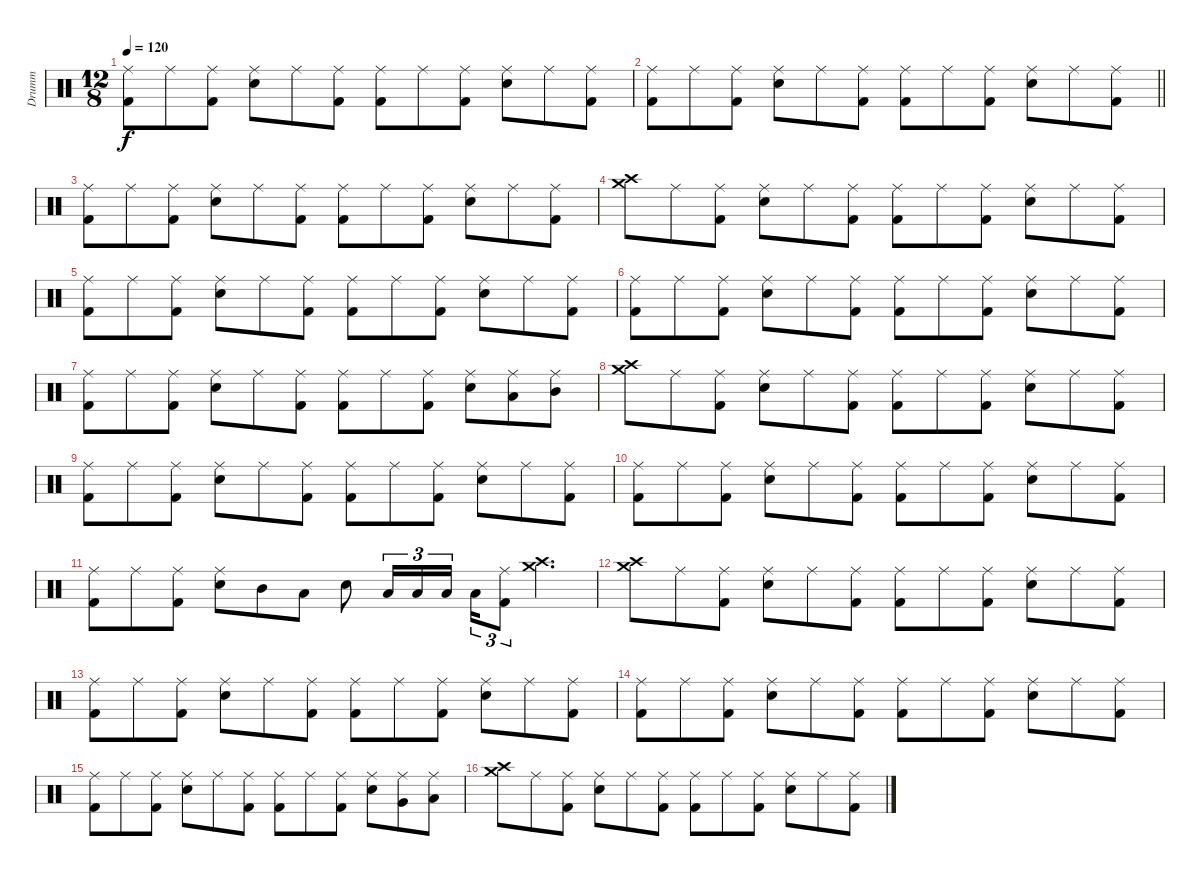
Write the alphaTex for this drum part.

\track ("Drumm" "Drumm") {instrument percussion}
\staff {score}
\articulation defaults
\ts (12 8)
\tempo 120
\clef neutral
\ks c
("Kick (hit) 2" "Ride (middle)").8{dy f} "Ride (middle)".8 ("Kick (hit) 2" "Ride (middle)").8 ("Electric Snare (hit)" "Ride (middle)").8 "Ride (middle)".8 ("Kick (hit) 2" "Ride (middle)").8 ("Kick (hit) 2" "Ride (middle)").8 "Ride (middle)".8 ("Kick (hit) 2" "Ride (middle)").8 ("Electric Snare (hit)" "Ride (middle)").8 "Ride (middle)".8 ("Kick (hit) 2" "Ride (middle)").8 |
\barLineRight lightlight
("Kick (hit) 2" "Ride (middle)").8 "Ride (middle)".8 ("Kick (hit) 2" "Ride (middle)").8 ("Electric Snare (hit)" "Ride (middle)").8 "Ride (middle)".8 ("Kick (hit) 2" "Ride (middle)").8 ("Kick (hit) 2" "Ride (middle)").8 "Ride (middle)".8 ("Kick (hit) 2" "Ride (middle)").8 ("Electric Snare (hit)" "Ride (middle)").8 "Ride (middle)".8 ("Kick (hit) 2" "Ride (middle)").8 |
("Kick (hit) 2" "Ride (middle)").8 "Ride (middle)".8 ("Kick (hit) 2" "Ride (middle)").8 ("Electric Snare (hit)" "Ride (middle)").8 "Ride (middle)".8 ("Kick (hit) 2" "Ride (middle)").8 ("Kick (hit) 2" "Ride (middle)").8 "Ride (middle)".8 ("Kick (hit) 2" "Ride (middle)").8 ("Electric Snare (hit)" "Ride (middle)").8 "Ride (middle)".8 ("Kick (hit) 2" "Ride (middle)").8 |
("Crash high (hit)" "Crash medium (hit)").8 "Ride (middle)".8 ("Kick (hit) 2" "Ride (middle)").8 ("Electric Snare (hit)" "Ride (middle)").8 "Ride (middle)".8 ("Kick (hit) 2" "Ride (middle)").8 ("Kick (hit) 2" "Ride (middle)").8 "Ride (middle)".8 ("Kick (hit) 2" "Ride (middle)").8 ("Electric Snare (hit)" "Ride (middle)").8 "Ride (middle)".8 ("Kick (hit) 2" "Ride (middle)").8 |
("Kick (hit) 2" "Ride (middle)").8 "Ride (middle)".8 ("Kick (hit) 2" "Ride (middle)").8 ("Electric Snare (hit)" "Ride (middle)").8 "Ride (middle)".8 ("Kick (hit) 2" "Ride (middle)").8 ("Kick (hit) 2" "Ride (middle)").8 "Ride (middle)".8 ("Kick (hit) 2" "Ride (middle)").8 ("Electric Snare (hit)" "Ride (middle)").8 "Ride (middle)".8 ("Kick (hit) 2" "Ride (middle)").8 |
("Kick (hit) 2" "Ride (middle)").8 "Ride (middle)".8 ("Kick (hit) 2" "Ride (middle)").8 ("Electric Snare (hit)" "Ride (middle)").8 "Ride (middle)".8 ("Kick (hit) 2" "Ride (middle)").8 ("Kick (hit) 2" "Ride (middle)").8 "Ride (middle)".8 ("Kick (hit) 2" "Ride (middle)").8 ("Electric Snare (hit)" "Ride (middle)").8 "Ride (middle)".8 ("Kick (hit) 2" "Ride (middle)").8 |
("Kick (hit) 2" "Ride (middle)").8 "Ride (middle)".8 ("Kick (hit) 2" "Ride (middle)").8 ("Electric Snare (hit)" "Ride (middle)").8 "Ride (middle)".8 ("Kick (hit) 2" "Ride (middle)").8 ("Kick (hit) 2" "Ride (middle)").8 "Ride (middle)".8 ("Kick (hit) 2" "Ride (middle)").8 ("Electric Snare (hit)" "Ride (middle)").8 ("Low Tom (hit)" "Ride (middle)").8 ("Mid Tom (hit)" "Ride (middle)").8 |
("Crash high (hit)" "Crash medium (hit)").8 "Ride (middle)".8 ("Kick (hit) 2" "Ride (middle)").8 ("Electric Snare (hit)" "Ride (middle)").8 "Ride (middle)".8 ("Kick (hit) 2" "Ride (middle)").8 ("Kick (hit) 2" "Ride (middle)").8 "Ride (middle)".8 ("Kick (hit) 2" "Ride (middle)").8 ("Electric Snare (hit)" "Ride (middle)").8 "Ride (middle)".8 ("Kick (hit) 2" "Ride (middle)").8 |
("Kick (hit) 2" "Ride (middle)").8 "Ride (middle)".8 ("Kick (hit) 2" "Ride (middle)").8 ("Electric Snare (hit)" "Ride (middle)").8 "Ride (middle)".8 ("Kick (hit) 2" "Ride (middle)").8 ("Kick (hit) 2" "Ride (middle)").8 "Ride (middle)".8 ("Kick (hit) 2" "Ride (middle)").8 ("Electric Snare (hit)" "Ride (middle)").8 "Ride (middle)".8 ("Kick (hit) 2" "Ride (middle)").8 |
("Kick (hit) 2" "Ride (middle)").8 "Ride (middle)".8 ("Kick (hit) 2" "Ride (middle)").8 ("Electric Snare (hit)" "Ride (middle)").8 "Ride (middle)".8 ("Kick (hit) 2" "Ride (middle)").8 ("Kick (hit) 2" "Ride (middle)").8 "Ride (middle)".8 ("Kick (hit) 2" "Ride (middle)").8 ("Electric Snare (hit)" "Ride (middle)").8 "Ride (middle)".8 ("Kick (hit) 2" "Ride (middle)").8 |
("Kick (hit) 2" "Ride (middle)").8 "Ride (middle)".8 ("Kick (hit) 2" "Ride (middle)").8 ("Electric Snare (hit)" "Ride (middle)").8 "Mid Tom (hit)".8 "Low Tom (hit)".8 "Electric Snare (hit)".8 "Low Floor Tom (hit)".16{tu (3 2)} "Low Floor Tom (hit)".16{tu (3 2)} "Low Floor Tom (hit)".16{tu (3 2) beam splitsecondary} "Low Floor Tom (hit)".16{tu (3 2)} ("Kick (hit) 2" "Ride (middle)").8{tu (3 2)} ("Crash high (hit)" "Crash medium (hit)").4{d} |
("Crash high (hit)" "Crash medium (hit)").8 "Ride (middle)".8 ("Kick (hit) 2" "Ride (middle)").8 ("Electric Snare (hit)" "Ride (middle)").8 "Ride (middle)".8 ("Kick (hit) 2" "Ride (middle)").8 ("Kick (hit) 2" "Ride (middle)").8 "Ride (middle)".8 ("Kick (hit) 2" "Ride (middle)").8 ("Electric Snare (hit)" "Ride (middle)").8 "Ride (middle)".8 ("Kick (hit) 2" "Ride (middle)").8 |
("Kick (hit) 2" "Ride (middle)").8 "Ride (middle)".8 ("Kick (hit) 2" "Ride (middle)").8 ("Electric Snare (hit)" "Ride (middle)").8 "Ride (middle)".8 ("Kick (hit) 2" "Ride (middle)").8 ("Kick (hit) 2" "Ride (middle)").8 "Ride (middle)".8 ("Kick (hit) 2" "Ride (middle)").8 ("Electric Snare (hit)" "Ride (middle)").8 "Ride (middle)".8 ("Kick (hit) 2" "Ride (middle)").8 |
("Kick (hit) 2" "Ride (middle)").8 "Ride (middle)".8 ("Kick (hit) 2" "Ride (middle)").8 ("Electric Snare (hit)" "Ride (middle)").8 "Ride (middle)".8 ("Kick (hit) 2" "Ride (middle)").8 ("Kick (hit) 2" "Ride (middle)").8 "Ride (middle)".8 ("Kick (hit) 2" "Ride (middle)").8 ("Electric Snare (hit)" "Ride (middle)").8 "Ride (middle)".8 ("Kick (hit) 2" "Ride (middle)").8 |
("Kick (hit) 2" "Ride (middle)").8 "Ride (middle)".8 ("Kick (hit) 2" "Ride (middle)").8 ("Electric Snare (hit)" "Ride (middle)").8 "Ride (middle)".8 ("Kick (hit) 2" "Ride (middle)").8 ("Kick (hit) 2" "Ride (middle)").8 "Ride (middle)".8 ("Kick (hit) 2" "Ride (middle)").8 ("Electric Snare (hit)" "Ride (middle)").8 ("Very Low Tom (hit)" "Ride (middle)").8 ("Low Floor Tom (hit)" "Ride (middle)").8 |
("Crash high (hit)" "Crash medium (hit)").8 "Ride (middle)".8 ("Kick (hit) 2" "Ride (middle)").8 ("Electric Snare (hit)" "Ride (middle)").8 "Ride (middle)".8 ("Kick (hit) 2" "Ride (middle)").8 ("Kick (hit) 2" "Ride (middle)").8 "Ride (middle)".8 ("Kick (hit) 2" "Ride (middle)").8 ("Electric Snare (hit)" "Ride (middle)").8 "Ride (middle)".8 ("Kick (hit) 2" "Ride (middle)").8
